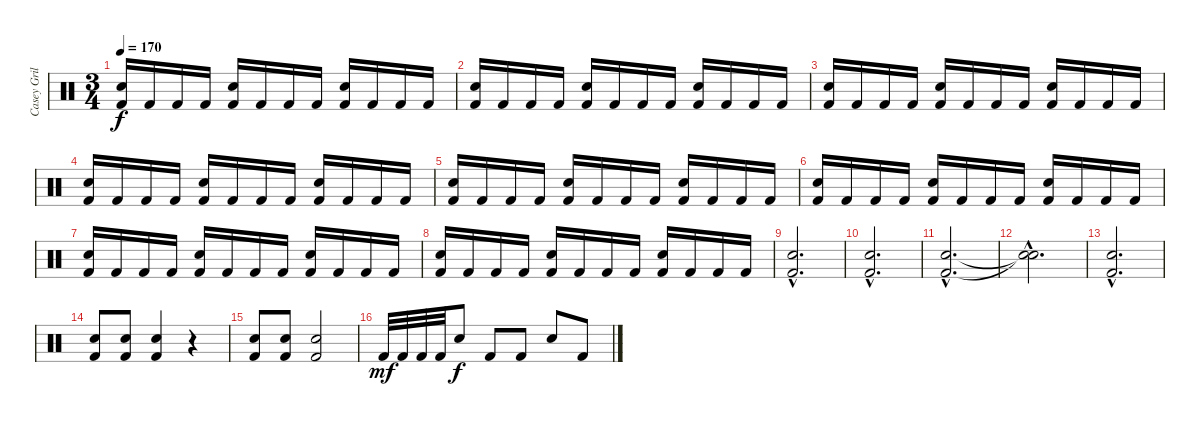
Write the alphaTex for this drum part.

\track ("Casey Grillo" "Casey Gril") {instrument percussion}
\staff {score}
\articulation defaults
\ts (3 4)
\tempo 170
\clef neutral
\ks c
("Snare (hit) 2" "Kick (hit) 2").16{dy f} "Kick (hit) 2".16 "Kick (hit) 2".16 "Kick (hit) 2".16 ("Snare (hit) 2" "Kick (hit) 2").16 "Kick (hit) 2".16 "Kick (hit) 2".16 "Kick (hit) 2".16 ("Snare (hit) 2" "Kick (hit) 2").16 "Kick (hit) 2".16 "Kick (hit) 2".16 "Kick (hit) 2".16 |
("Snare (hit) 2" "Kick (hit) 2").16 "Kick (hit) 2".16 "Kick (hit) 2".16 "Kick (hit) 2".16 ("Snare (hit) 2" "Kick (hit) 2").16 "Kick (hit) 2".16 "Kick (hit) 2".16 "Kick (hit) 2".16 ("Snare (hit) 2" "Kick (hit) 2").16 "Kick (hit) 2".16 "Kick (hit) 2".16 "Kick (hit) 2".16 |
("Snare (hit) 2" "Kick (hit) 2").16 "Kick (hit) 2".16 "Kick (hit) 2".16 "Kick (hit) 2".16 ("Snare (hit) 2" "Kick (hit) 2").16 "Kick (hit) 2".16 "Kick (hit) 2".16 "Kick (hit) 2".16 ("Snare (hit) 2" "Kick (hit) 2").16 "Kick (hit) 2".16 "Kick (hit) 2".16 "Kick (hit) 2".16 |
("Snare (hit) 2" "Kick (hit) 2").16 "Kick (hit) 2".16 "Kick (hit) 2".16 "Kick (hit) 2".16 ("Snare (hit) 2" "Kick (hit) 2").16 "Kick (hit) 2".16 "Kick (hit) 2".16 "Kick (hit) 2".16 ("Snare (hit) 2" "Kick (hit) 2").16 "Kick (hit) 2".16 "Kick (hit) 2".16 "Kick (hit) 2".16 |
("Snare (hit) 2" "Kick (hit) 2").16 "Kick (hit) 2".16 "Kick (hit) 2".16 "Kick (hit) 2".16 ("Snare (hit) 2" "Kick (hit) 2").16 "Kick (hit) 2".16 "Kick (hit) 2".16 "Kick (hit) 2".16 ("Snare (hit) 2" "Kick (hit) 2").16 "Kick (hit) 2".16 "Kick (hit) 2".16 "Kick (hit) 2".16 |
("Snare (hit) 2" "Kick (hit) 2").16 "Kick (hit) 2".16 "Kick (hit) 2".16 "Kick (hit) 2".16 ("Snare (hit) 2" "Kick (hit) 2").16 "Kick (hit) 2".16 "Kick (hit) 2".16 "Kick (hit) 2".16 ("Snare (hit) 2" "Kick (hit) 2").16 "Kick (hit) 2".16 "Kick (hit) 2".16 "Kick (hit) 2".16 |
("Snare (hit) 2" "Kick (hit) 2").16 "Kick (hit) 2".16 "Kick (hit) 2".16 "Kick (hit) 2".16 ("Snare (hit) 2" "Kick (hit) 2").16 "Kick (hit) 2".16 "Kick (hit) 2".16 "Kick (hit) 2".16 ("Snare (hit) 2" "Kick (hit) 2").16 "Kick (hit) 2".16 "Kick (hit) 2".16 "Kick (hit) 2".16 |
("Snare (hit) 2" "Kick (hit) 2").16 "Kick (hit) 2".16 "Kick (hit) 2".16 "Kick (hit) 2".16 ("Snare (hit) 2" "Kick (hit) 2").16 "Kick (hit) 2".16 "Kick (hit) 2".16 "Kick (hit) 2".16 ("Snare (hit) 2" "Kick (hit) 2").16 "Kick (hit) 2".16 "Kick (hit) 2".16 "Kick (hit) 2".16 |
("Snare (hit) 2"{hac} "Kick (hit) 2"{hac}).2{d} |
("Snare (hit) 2"{hac} "Kick (hit) 2"{hac}).2{d} |
("Snare (hit) 2"{hac} "Kick (hit) 2"{hac}).2{d} |
("Snare (hit)"{hac t} "Snare (hit)"{hac t}).2{d} |
("Snare (hit) 2"{hac} "Kick (hit) 2"{hac}).2{d} |
("Snare (hit) 2" "Kick (hit) 2").8 ("Snare (hit) 2" "Kick (hit) 2").8 ("Snare (hit) 2" "Kick (hit) 2").4 r.4 |
("Snare (hit) 2" "Kick (hit) 2").8 ("Snare (hit) 2" "Kick (hit) 2").8 ("Snare (hit) 2" "Kick (hit) 2").2 |
"Kick (hit) 2".32{dy mf} "Kick (hit) 2".32 "Kick (hit) 2".32 "Kick (hit) 2".32 "Snare (hit) 2".8{dy f} "Kick (hit) 2".8 "Kick (hit) 2".8 "Snare (hit) 2".8 "Kick (hit) 2".8
